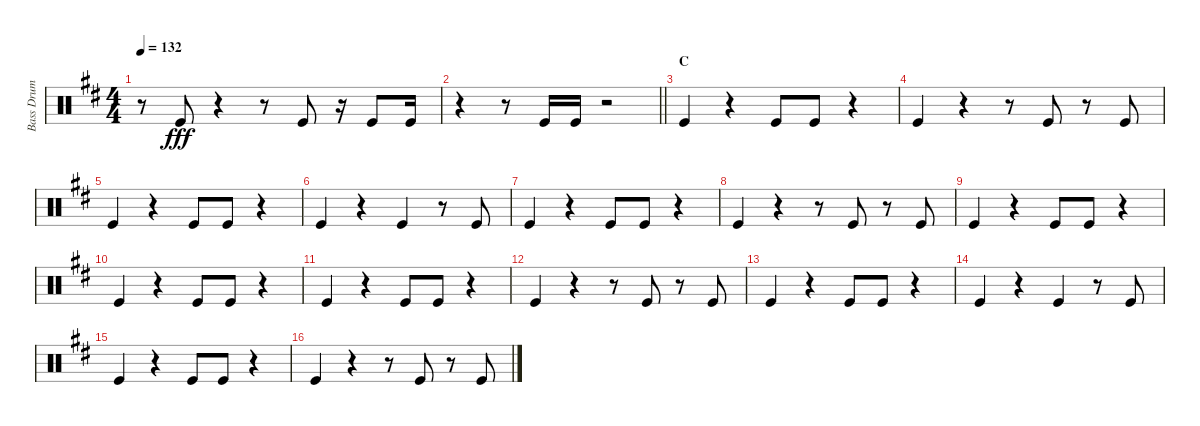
\track ("Bass Drum" "Bass Drum") {instrument percussion}
\staff {score}
\articulation defaults
\ts (4 4)
\tempo 132
\clef neutral
\ks d
r.8{dy fff} "Kick (hit)".8 r.4 r.8 "Kick (hit)".8 r.16 "Kick (hit)".8 "Kick (hit)".16 |
\barLineRight lightlight
r.4 r.8 "Kick (hit)".16 "Kick (hit)".16 r.2 |
\section ("" "C")
"Kick (hit)".4 r.4 "Kick (hit)".8 "Kick (hit)".8 r.4 |
"Kick (hit)".4 r.4 r.8 "Kick (hit)".8 r.8 "Kick (hit)".8 |
"Kick (hit)".4 r.4 "Kick (hit)".8 "Kick (hit)".8 r.4 |
"Kick (hit)".4 r.4 "Kick (hit)".4 r.8 "Kick (hit)".8 |
"Kick (hit)".4 r.4 "Kick (hit)".8 "Kick (hit)".8 r.4 |
"Kick (hit)".4 r.4 r.8 "Kick (hit)".8 r.8 "Kick (hit)".8 |
"Kick (hit)".4 r.4 "Kick (hit)".8 "Kick (hit)".8 r.4 |
"Kick (hit)".4 r.4 "Kick (hit)".8 "Kick (hit)".8 r.4 |
"Kick (hit)".4 r.4 "Kick (hit)".8 "Kick (hit)".8 r.4 |
"Kick (hit)".4 r.4 r.8 "Kick (hit)".8 r.8 "Kick (hit)".8 |
"Kick (hit)".4 r.4 "Kick (hit)".8 "Kick (hit)".8 r.4 |
"Kick (hit)".4 r.4 "Kick (hit)".4 r.8 "Kick (hit)".8 |
"Kick (hit)".4 r.4 "Kick (hit)".8 "Kick (hit)".8 r.4 |
"Kick (hit)".4 r.4 r.8 "Kick (hit)".8 r.8 "Kick (hit)".8
